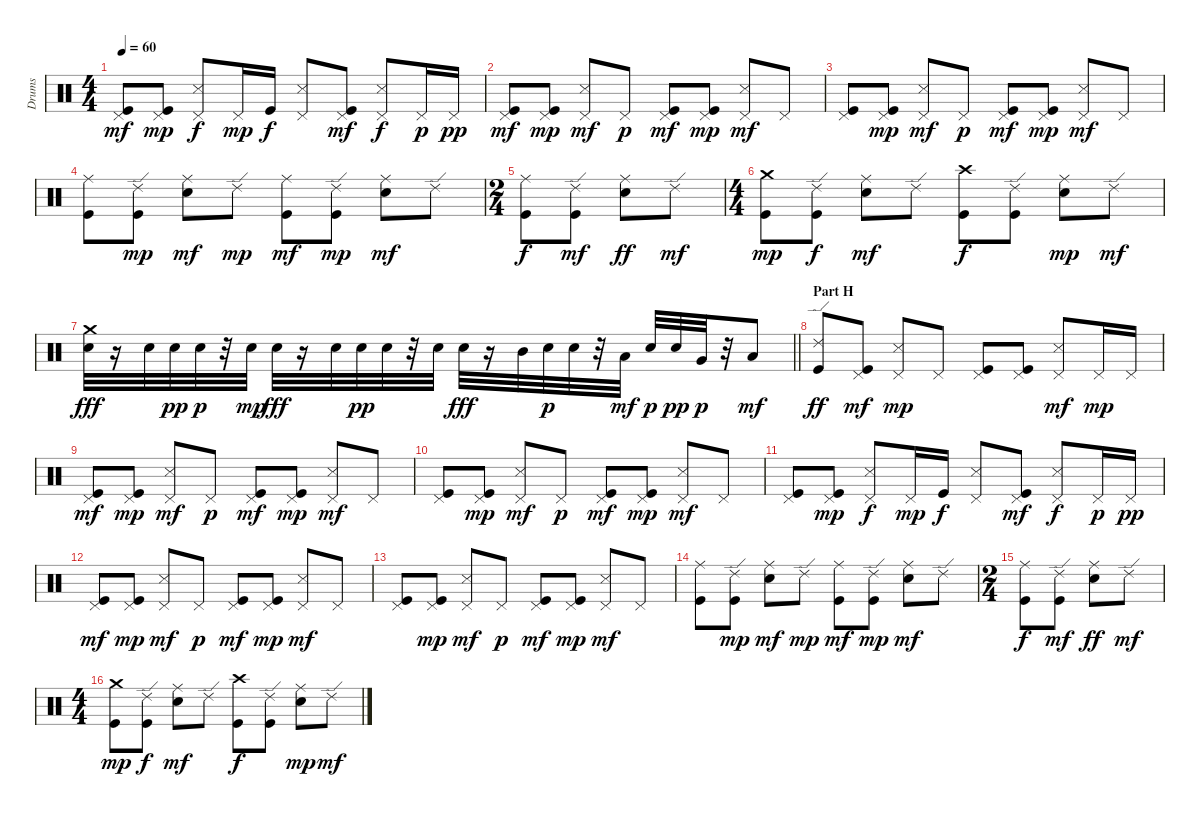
\track ("Drums" "Drums") {instrument percussion}
\staff {score}
\articulation defaults
\ts (4 4)
\tempo 60
\clef neutral
\ks c
("Pedal Hi-Hat (hit)" "Kick (hit)").8{dy mf} ("Pedal Hi-Hat (hit)" "Kick (hit)").8{dy mp} ("Pedal Hi-Hat (hit)" "Snare (side stick) 3").8{dy f} "Pedal Hi-Hat (hit)".16{dy mp} "Kick (hit)".16{dy f} ("Pedal Hi-Hat (hit)" "Snare (side stick) 3").8 ("Pedal Hi-Hat (hit)" "Kick (hit)").8{dy mf} ("Pedal Hi-Hat (hit)" "Snare (side stick) 3").8{dy f} "Pedal Hi-Hat (hit)".16{dy p} "Pedal Hi-Hat (hit)".16{dy pp} |
("Pedal Hi-Hat (hit)" "Kick (hit)").8{dy mf} ("Pedal Hi-Hat (hit)" "Kick (hit)").8{dy mp} ("Pedal Hi-Hat (hit)" "Snare (side stick) 3").8{dy mf} "Pedal Hi-Hat (hit)".8{dy p} ("Pedal Hi-Hat (hit)" "Kick (hit)").8{dy mf} ("Pedal Hi-Hat (hit)" "Kick (hit)").8{dy mp} ("Pedal Hi-Hat (hit)" "Snare (side stick) 3").8{dy mf} "Pedal Hi-Hat (hit)".8 |
("Pedal Hi-Hat (hit)" "Kick (hit)").8 ("Pedal Hi-Hat (hit)" "Kick (hit)").8{dy mp} ("Pedal Hi-Hat (hit)" "Snare (side stick) 3").8{dy mf} "Pedal Hi-Hat (hit)".8{dy p} ("Pedal Hi-Hat (hit)" "Kick (hit)").8{dy mf} ("Pedal Hi-Hat (hit)" "Kick (hit)").8{dy mp} ("Pedal Hi-Hat (hit)" "Snare (side stick) 3").8{dy mf} "Pedal Hi-Hat (hit)".8 |
("Ride (middle)" "Kick (hit)").8{volume 11} ("Ride (edge) 2" "Kick (hit)").8{dy mp} ("Ride (middle)" "Electric Snare (hit)").8{dy mf} "Ride (edge) 2".8{dy mp} ("Ride (middle)" "Kick (hit)").8{dy mf} ("Ride (edge) 2" "Kick (hit)").8{dy mp} ("Ride (middle)" "Electric Snare (hit)").8{dy mf} "Ride (edge) 2".8 |
\ts (2 4)
("Ride (middle)" "Kick (hit)").8{dy f} ("Ride (edge) 2" "Kick (hit)").8{dy mf} ("Ride (middle)" "Electric Snare (hit)").8{dy ff} "Ride (edge) 2".8{dy mf} |
\ts (4 4)
("Crash medium (hit)" "Kick (hit)").8{dy mp} ("Ride (edge) 2" "Kick (hit)").8{dy f} ("Ride (middle)" "Electric Snare (hit)").8{dy mf} "Ride (edge) 2".8 ("Crash high (hit)" "Kick (hit)").8{dy f} ("Ride (edge) 2" "Kick (hit)").8 ("Ride (middle)" "Electric Snare (hit)").8{dy mp} "Ride (edge) 2".8{dy mf} |
\barLineRight lightlight
("Crash medium (hit)" "Electric Snare (hit)").32{dy fff} r.16 "Electric Snare (hit)".32 "Electric Snare (hit)".32{dy pp} "Electric Snare (hit)".32{dy p} r.32 "Electric Snare (hit)".32{dy mp} "Electric Snare (hit)".32{dy fff} r.16 "Electric Snare (hit)".32 "Electric Snare (hit)".32{dy pp} "Electric Snare (hit)".32 r.32 "Electric Snare (hit)".32 "Electric Snare (hit)".32{dy fff} r.16 "Mid Tom (hit)".32 "Electric Snare (hit)".32{dy p} "Electric Snare (hit)".32 r.32 "Low Tom (hit)".32{dy mf} "Electric Snare (hit)".32{dy p} "Electric Snare (hit)".32{dy pp} "Very Low Tom (hit)".32{dy p} r.32 "Low Floor Tom (hit)".8{dy mf} |
\section ("" "Part H")
("Ride (edge) 2" "Kick (hit)").8{dy ff volume 10} ("Pedal Hi-Hat (hit)" "Kick (hit)").8{dy mf} ("Pedal Hi-Hat (hit)" "Snare (side stick) 3").8{dy mp} "Pedal Hi-Hat (hit)".8 ("Pedal Hi-Hat (hit)" "Kick (hit)").8 ("Pedal Hi-Hat (hit)" "Kick (hit)").8 ("Pedal Hi-Hat (hit)" "Snare (side stick) 3").8{dy mf} "Pedal Hi-Hat (hit)".16{dy mp} "Pedal Hi-Hat (hit)".16 |
("Pedal Hi-Hat (hit)" "Kick (hit)").8{dy mf} ("Pedal Hi-Hat (hit)" "Kick (hit)").8{dy mp} ("Pedal Hi-Hat (hit)" "Snare (side stick) 3").8{dy mf} "Pedal Hi-Hat (hit)".8{dy p} ("Pedal Hi-Hat (hit)" "Kick (hit)").8{dy mf} ("Pedal Hi-Hat (hit)" "Kick (hit)").8{dy mp} ("Pedal Hi-Hat (hit)" "Snare (side stick) 3").8{dy mf} "Pedal Hi-Hat (hit)".8 |
("Pedal Hi-Hat (hit)" "Kick (hit)").8 ("Pedal Hi-Hat (hit)" "Kick (hit)").8{dy mp} ("Pedal Hi-Hat (hit)" "Snare (side stick) 3").8{dy mf} "Pedal Hi-Hat (hit)".8{dy p} ("Pedal Hi-Hat (hit)" "Kick (hit)").8{dy mf} ("Pedal Hi-Hat (hit)" "Kick (hit)").8{dy mp} ("Pedal Hi-Hat (hit)" "Snare (side stick) 3").8{dy mf} "Pedal Hi-Hat (hit)".8 |
("Pedal Hi-Hat (hit)" "Kick (hit)").8 ("Pedal Hi-Hat (hit)" "Kick (hit)").8{dy mp} ("Pedal Hi-Hat (hit)" "Snare (side stick) 3").8{dy f} "Pedal Hi-Hat (hit)".16{dy mp} "Kick (hit)".16{dy f} ("Pedal Hi-Hat (hit)" "Snare (side stick) 3").8 ("Pedal Hi-Hat (hit)" "Kick (hit)").8{dy mf} ("Pedal Hi-Hat (hit)" "Snare (side stick) 3").8{dy f} "Pedal Hi-Hat (hit)".16{dy p} "Pedal Hi-Hat (hit)".16{dy pp} |
("Pedal Hi-Hat (hit)" "Kick (hit)").8{dy mf} ("Pedal Hi-Hat (hit)" "Kick (hit)").8{dy mp} ("Pedal Hi-Hat (hit)" "Snare (side stick) 3").8{dy mf} "Pedal Hi-Hat (hit)".8{dy p} ("Pedal Hi-Hat (hit)" "Kick (hit)").8{dy mf} ("Pedal Hi-Hat (hit)" "Kick (hit)").8{dy mp} ("Pedal Hi-Hat (hit)" "Snare (side stick) 3").8{dy mf} "Pedal Hi-Hat (hit)".8 |
("Pedal Hi-Hat (hit)" "Kick (hit)").8 ("Pedal Hi-Hat (hit)" "Kick (hit)").8{dy mp} ("Pedal Hi-Hat (hit)" "Snare (side stick) 3").8{dy mf} "Pedal Hi-Hat (hit)".8{dy p} ("Pedal Hi-Hat (hit)" "Kick (hit)").8{dy mf} ("Pedal Hi-Hat (hit)" "Kick (hit)").8{dy mp} ("Pedal Hi-Hat (hit)" "Snare (side stick) 3").8{dy mf} "Pedal Hi-Hat (hit)".8 |
("Ride (middle)" "Kick (hit)").8{volume 11} ("Ride (edge) 2" "Kick (hit)").8{dy mp} ("Ride (middle)" "Electric Snare (hit)").8{dy mf} "Ride (edge) 2".8{dy mp} ("Ride (middle)" "Kick (hit)").8{dy mf} ("Ride (edge) 2" "Kick (hit)").8{dy mp} ("Ride (middle)" "Electric Snare (hit)").8{dy mf} "Ride (edge) 2".8 |
\ts (2 4)
("Ride (middle)" "Kick (hit)").8{dy f} ("Ride (edge) 2" "Kick (hit)").8{dy mf} ("Ride (middle)" "Electric Snare (hit)").8{dy ff} "Ride (edge) 2".8{dy mf} |
\ts (4 4)
("Crash medium (hit)" "Kick (hit)").8{dy mp} ("Ride (edge) 2" "Kick (hit)").8{dy f} ("Ride (middle)" "Electric Snare (hit)").8{dy mf} "Ride (edge) 2".8 ("Crash high (hit)" "Kick (hit)").8{dy f} ("Ride (edge) 2" "Kick (hit)").8 ("Ride (middle)" "Electric Snare (hit)").8{dy mp} "Ride (edge) 2".8{dy mf}
